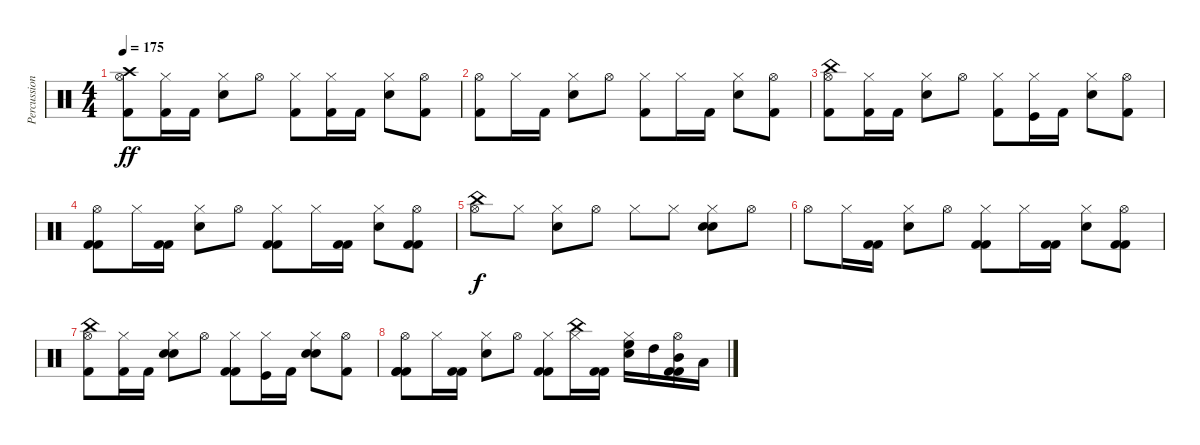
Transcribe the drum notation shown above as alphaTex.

\track ("Percussion" "Percussion") {instrument percussion}
\staff {score}
\articulation defaults
\ts (4 4)
\tempo 175
\clef neutral
\ks c
("Hi-Hat (open)" "Kick (hit) 2" "Crash high (hit)").8{dy ff} ("Hi-Hat (closed)" "Kick (hit) 2").16 "Kick (hit) 2".16 ("Hi-Hat (closed)" "Electric Snare (hit)").8 "Hi-Hat (open)".8 ("Hi-Hat (closed)" "Kick (hit) 2").8 ("Hi-Hat (closed)" "Kick (hit) 2").16 "Kick (hit) 2".16 ("Hi-Hat (closed)" "Electric Snare (hit)").8 ("Hi-Hat (open)" "Kick (hit) 2").8 |
("Hi-Hat (open)" "Kick (hit) 2").8 "Hi-Hat (closed)".16 "Kick (hit) 2".16 ("Hi-Hat (closed)" "Electric Snare (hit)").8 "Hi-Hat (open)".8 ("Hi-Hat (closed)" "Kick (hit) 2").8 "Hi-Hat (closed)".16 "Kick (hit) 2".16 ("Hi-Hat (closed)" "Electric Snare (hit)").8 ("Hi-Hat (open)" "Kick (hit) 2").8 |
("Hi-Hat (open)" "Kick (hit) 2" "China (hit)").8 ("Hi-Hat (closed)" "Kick (hit) 2").16 "Kick (hit) 2".16 ("Hi-Hat (closed)" "Electric Snare (hit)").8 "Hi-Hat (open)".8 ("Hi-Hat (closed)" "Kick (hit) 2").8 ("Hi-Hat (closed)" "Kick (hit)").16 "Kick (hit) 2".16 ("Hi-Hat (closed)" "Electric Snare (hit)").8 ("Hi-Hat (open)" "Kick (hit) 2").8 |
("Hi-Hat (open)" "Kick (hit) 2" "Kick (hit) 2").8 "Hi-Hat (closed)".16 ("Kick (hit) 2" "Kick (hit) 2").16 ("Hi-Hat (closed)" "Electric Snare (hit)").8 "Hi-Hat (open)".8 ("Hi-Hat (closed)" "Kick (hit) 2" "Kick (hit) 2").8 "Hi-Hat (closed)".16 ("Kick (hit) 2" "Kick (hit) 2").16 ("Hi-Hat (closed)" "Electric Snare (hit)").8 ("Hi-Hat (open)" "Kick (hit) 2" "Kick (hit) 2").8 |
("Hi-Hat (open)" "China (hit)").8{dy f} "Hi-Hat (closed)".8 ("Hi-Hat (closed)" "Electric Snare (hit)").8 "Hi-Hat (open)".8 "Hi-Hat (closed)".8 "Hi-Hat (closed)".8 ("Hi-Hat (closed)" "Electric Snare (hit)" "Electric Snare (hit)").8 "Hi-Hat (open)".8 |
"Hi-Hat (open)".8 "Hi-Hat (closed)".16 ("Kick (hit) 2" "Kick (hit) 2").16 ("Hi-Hat (closed)" "Electric Snare (hit)").8 "Hi-Hat (open)".8 ("Hi-Hat (closed)" "Kick (hit) 2" "Kick (hit) 2").8 "Hi-Hat (closed)".16 ("Kick (hit) 2" "Kick (hit) 2").16 ("Hi-Hat (closed)" "Electric Snare (hit)").8 ("Hi-Hat (open)" "Kick (hit) 2" "Kick (hit) 2").8 |
("Hi-Hat (open)" "Kick (hit) 2" "China (hit)").8 ("Hi-Hat (closed)" "Kick (hit) 2").16 "Kick (hit) 2".16 ("Hi-Hat (closed)" "Electric Snare (hit)" "Snare (hit) 2").8 "Hi-Hat (open)".8 ("Hi-Hat (closed)" "Kick (hit) 2" "Kick (hit) 2").8 ("Hi-Hat (closed)" "Kick (hit)").16 "Kick (hit) 2".16 ("Hi-Hat (closed)" "Electric Snare (hit)" "Snare (hit) 2").8 ("Hi-Hat (open)" "Kick (hit) 2").8 |
("Hi-Hat (open)" "Kick (hit) 2" "Kick (hit) 2" "Kick (hit) 2").8 "Hi-Hat (closed)".16 ("Kick (hit) 2" "Kick (hit) 2").16 ("Hi-Hat (closed)" "Electric Snare (hit)").8 "Hi-Hat (open)".8 ("Hi-Hat (closed)" "Kick (hit) 2" "Kick (hit) 2").8 ("Hi-Hat (closed)" "China (hit)").16 ("Kick (hit) 2" "Kick (hit) 2").16 ("Hi-Hat (closed)" "Electric Snare (hit)" "High Floor Tom (hit)").16 "High Tom (hit)".16 ("Hi-Hat (open)" "Kick (hit) 2" "Kick (hit) 2" "Mid Tom (hit)").16 "Low Tom (hit)".16
